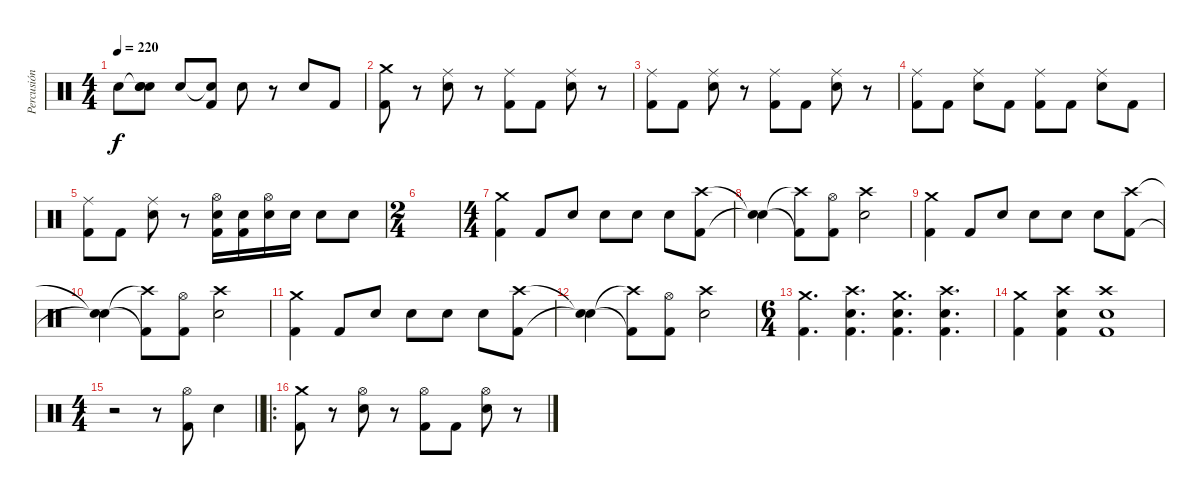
\track ("Percusión" "Percusión") {instrument percussion}
\staff {score}
\articulation defaults
\ts (4 4)
\tempo 220
\clef neutral
\ks c "Snare (hit)"{t}.8{dy f}
("Snare (hit)"{t} "Snare (hit)"{t} "Snare (hit)"{t}).8 "Electric Snare (hit)".8 ("Snare (hit)"{t} "Kick (hit) 2").8 "Electric Snare (hit)".8 r.8 "Electric Snare (hit)".8 "Kick (hit) 2".8 |
("Crash medium (hit)" "Kick (hit) 2").8 r.8 ("Ride (middle)" "Electric Snare (hit)").8 r.8 ("Ride (middle)" "Kick (hit) 2").8 "Kick (hit) 2".8 ("Ride (middle)" "Electric Snare (hit)").8 r.8 |
("Ride (middle)" "Kick (hit) 2").8 "Kick (hit) 2".8 ("Ride (middle)" "Electric Snare (hit)").8 r.8 ("Ride (middle)" "Kick (hit) 2").8 "Kick (hit) 2".8 ("Ride (middle)" "Electric Snare (hit)").8 r.8 |
("Ride (middle)" "Kick (hit) 2").8 "Kick (hit) 2".8 ("Ride (middle)" "Electric Snare (hit)").8 "Kick (hit) 2".8 ("Ride (middle)" "Kick (hit) 2").8 "Kick (hit) 2".8 ("Ride (middle)" "Electric Snare (hit)").8 "Kick (hit) 2".8 |
("Ride (middle)" "Kick (hit) 2").8 "Kick (hit) 2".8 ("Ride (middle)" "Electric Snare (hit)").8 r.8 ("Hi-Hat (open)" "Electric Snare (hit)" "Kick (hit) 2").16 ("Electric Snare (hit)" "Kick (hit) 2").16 ("Hi-Hat (open)" "Electric Snare (hit)").16 "Electric Snare (hit)".16 "Electric Snare (hit)".8 "Electric Snare (hit)".8 |
\ts (2 4)
|
\ts (4 4)
("Crash medium (hit)" "Kick (hit) 2").4 "Kick (hit) 2".8 "Electric Snare (hit)".8 "Electric Snare (hit)".8 "Electric Snare (hit)".8 "Electric Snare (hit)".8 ("Crash high (hit)" "Kick (hit) 2").8 |
("Snare (hit)"{t} "Snare (hit)"{t}).4 ("Crash high (hit)"{t} "Kick (hit) 2"{t}).8 ("Hi-Hat (open)" "Kick (hit) 2").8 ("Crash high (hit)" "Electric Snare (hit)").2 |
("Crash medium (hit)" "Kick (hit) 2").4 "Kick (hit) 2".8 "Electric Snare (hit)".8 "Electric Snare (hit)".8 "Electric Snare (hit)".8 "Electric Snare (hit)".8 ("Crash high (hit)" "Kick (hit) 2").8 |
("Snare (hit)"{t} "Snare (hit)"{t}).4 ("Crash high (hit)"{t} "Kick (hit) 2"{t}).8 ("Hi-Hat (open)" "Kick (hit) 2").8 ("Crash high (hit)" "Electric Snare (hit)").2 |
("Crash medium (hit)" "Kick (hit) 2").4 "Kick (hit) 2".8 "Electric Snare (hit)".8 "Electric Snare (hit)".8 "Electric Snare (hit)".8 "Electric Snare (hit)".8 ("Crash high (hit)" "Kick (hit) 2").8 |
("Snare (hit)"{t} "Snare (hit)"{t}).4 ("Crash high (hit)"{t} "Kick (hit) 2"{t}).8 ("Hi-Hat (open)" "Kick (hit) 2").8 ("Crash high (hit)" "Electric Snare (hit)").2 |
\ts (6 4)
("Crash medium (hit)" "Kick (hit) 2").4{d} ("Crash high (hit)" "Electric Snare (hit)" "Kick (hit) 2").4{d} ("Crash medium (hit)" "Electric Snare (hit)" "Kick (hit) 2").4{d} ("Crash high (hit)" "Electric Snare (hit)" "Kick (hit) 2").4{d} |
("Crash medium (hit)" "Kick (hit) 2").4 ("Crash high (hit)" "Electric Snare (hit)" "Kick (hit) 2").4 ("Crash high (hit)" "Electric Snare (hit)" "Kick (hit) 2").1 |
\ts (4 4)
\barLineRight lightlight
r.2 r.8 ("Hi-Hat (open)" "Kick (hit) 2").8 "Electric Snare (hit)".4 |
\ro
("Crash medium (hit)" "Kick (hit) 2").8 r.8 ("Hi-Hat (open)" "Electric Snare (hit)").8 r.8 ("Hi-Hat (open)" "Kick (hit) 2").8 "Kick (hit) 2".8 ("Hi-Hat (open)" "Electric Snare (hit)").8 r.8
